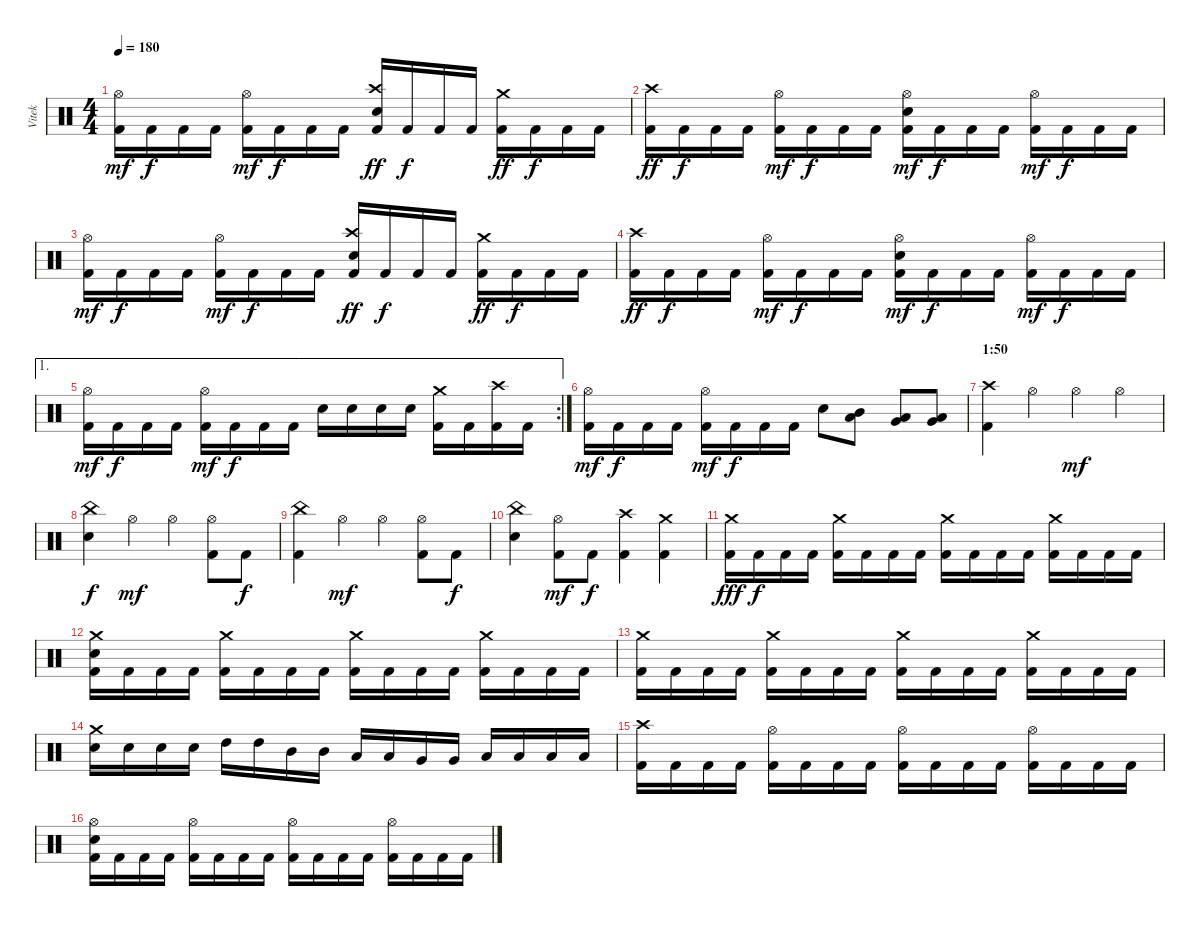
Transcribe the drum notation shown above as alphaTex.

\track ("Vitek" "Vitek") {instrument percussion}
\staff {score}
\articulation defaults
\ts (4 4)
\tempo 180
\clef neutral
\ks c
("Hi-Hat (open)" "Kick (hit) 2").16{dy mf} "Kick (hit) 2".16{dy f} "Kick (hit) 2".16 "Kick (hit) 2".16 ("Hi-Hat (open)" "Kick (hit) 2").16{dy mf} "Kick (hit) 2".16{dy f} "Kick (hit) 2".16 "Kick (hit) 2".16 ("Crash high (hit)" "Electric Snare (hit)" "Kick (hit) 2").16{dy ff} "Kick (hit) 2".16{dy f} "Kick (hit) 2".16 "Kick (hit) 2".16 ("Crash medium (hit)" "Kick (hit) 2").16{dy ff} "Kick (hit) 2".16{dy f} "Kick (hit) 2".16 "Kick (hit) 2".16 |
("Crash high (hit)" "Kick (hit) 2").16{dy ff} "Kick (hit) 2".16{dy f} "Kick (hit) 2".16 "Kick (hit) 2".16 ("Hi-Hat (open)" "Kick (hit) 2").16{dy mf} "Kick (hit) 2".16{dy f} "Kick (hit) 2".16 "Kick (hit) 2".16 ("Hi-Hat (open)" "Electric Snare (hit)" "Kick (hit) 2").16{dy mf} "Kick (hit) 2".16{dy f} "Kick (hit) 2".16 "Kick (hit) 2".16 ("Hi-Hat (open)" "Kick (hit) 2").16{dy mf} "Kick (hit) 2".16{dy f} "Kick (hit) 2".16 "Kick (hit) 2".16 |
("Hi-Hat (open)" "Kick (hit) 2").16{dy mf} "Kick (hit) 2".16{dy f} "Kick (hit) 2".16 "Kick (hit) 2".16 ("Hi-Hat (open)" "Kick (hit) 2").16{dy mf} "Kick (hit) 2".16{dy f} "Kick (hit) 2".16 "Kick (hit) 2".16 ("Crash high (hit)" "Electric Snare (hit)" "Kick (hit) 2").16{dy ff} "Kick (hit) 2".16{dy f} "Kick (hit) 2".16 "Kick (hit) 2".16 ("Crash medium (hit)" "Kick (hit) 2").16{dy ff} "Kick (hit) 2".16{dy f} "Kick (hit) 2".16 "Kick (hit) 2".16 |
("Crash high (hit)" "Kick (hit) 2").16{dy ff} "Kick (hit) 2".16{dy f} "Kick (hit) 2".16 "Kick (hit) 2".16 ("Hi-Hat (open)" "Kick (hit) 2").16{dy mf} "Kick (hit) 2".16{dy f} "Kick (hit) 2".16 "Kick (hit) 2".16 ("Hi-Hat (open)" "Electric Snare (hit)" "Kick (hit) 2").16{dy mf} "Kick (hit) 2".16{dy f} "Kick (hit) 2".16 "Kick (hit) 2".16 ("Hi-Hat (open)" "Kick (hit) 2").16{dy mf} "Kick (hit) 2".16{dy f} "Kick (hit) 2".16 "Kick (hit) 2".16 |
\ae 1
\rc 2
("Hi-Hat (open)" "Kick (hit) 2").16{dy mf} "Kick (hit) 2".16{dy f} "Kick (hit) 2".16 "Kick (hit) 2".16 ("Hi-Hat (open)" "Kick (hit) 2").16{dy mf} "Kick (hit) 2".16{dy f} "Kick (hit) 2".16 "Kick (hit) 2".16 "Electric Snare (hit)".16 "Electric Snare (hit)".16 "Electric Snare (hit)".16 "Electric Snare (hit)".16 ("Crash medium (hit)" "Kick (hit) 2").16 "Kick (hit) 2".16 ("Crash high (hit)" "Kick (hit) 2").16 "Kick (hit) 2".16 |
("Hi-Hat (open)" "Kick (hit) 2").16{dy mf} "Kick (hit) 2".16{dy f} "Kick (hit) 2".16 "Kick (hit) 2".16 ("Hi-Hat (open)" "Kick (hit) 2").16{dy mf} "Kick (hit) 2".16{dy f} "Kick (hit) 2".16 "Kick (hit) 2".16 "Electric Snare (hit)".8 ("Mid Tom (hit)" "Low Tom (hit)").8 ("Low Tom (hit)" "Very Low Tom (hit)").8 ("Very Low Tom (hit)" "Low Floor Tom (hit)").8 |
\section ("" "1:50")
("Crash high (hit)" "Kick (hit) 2").4 "Hi-Hat (open)".4 "Hi-Hat (open)".4{dy mf} "Hi-Hat (open)".4 |
("China (hit)" "Electric Snare (hit)").4{dy f} "Hi-Hat (open)".4{dy mf} "Hi-Hat (open)".4 ("Hi-Hat (open)" "Kick (hit) 2").8 "Kick (hit) 2".8{dy f} |
("China (hit)" "Kick (hit) 2").4 "Hi-Hat (open)".4{dy mf} "Hi-Hat (open)".4 ("Hi-Hat (open)" "Kick (hit) 2").8 "Kick (hit) 2".8{dy f} |
("China (hit)" "Electric Snare (hit)").4 ("Hi-Hat (open)" "Kick (hit) 2").8{dy mf} "Kick (hit) 2".8{dy f} ("Crash high (hit)" "Kick (hit) 2").4 ("Crash medium (hit)" "Kick (hit) 2").4 |
("Crash medium (hit)" "Kick (hit) 2").16{dy fff} "Kick (hit) 2".16{dy f} "Kick (hit) 2".16 "Kick (hit) 2".16 ("Crash medium (hit)" "Kick (hit) 2").16 "Kick (hit) 2".16 "Kick (hit) 2".16 "Kick (hit) 2".16 ("Crash medium (hit)" "Kick (hit) 2").16 "Kick (hit) 2".16 "Kick (hit) 2".16 "Kick (hit) 2".16 ("Crash medium (hit)" "Kick (hit) 2").16 "Kick (hit) 2".16 "Kick (hit) 2".16 "Kick (hit) 2".16 |
("Crash medium (hit)" "Electric Snare (hit)" "Kick (hit) 2").16 "Kick (hit) 2".16 "Kick (hit) 2".16 "Kick (hit) 2".16 ("Crash medium (hit)" "Kick (hit) 2").16 "Kick (hit) 2".16 "Kick (hit) 2".16 "Kick (hit) 2".16 ("Crash medium (hit)" "Kick (hit) 2").16 "Kick (hit) 2".16 "Kick (hit) 2".16 "Kick (hit) 2".16 ("Crash medium (hit)" "Kick (hit) 2").16 "Kick (hit) 2".16 "Kick (hit) 2".16 "Kick (hit) 2".16 |
("Crash medium (hit)" "Kick (hit) 2").16 "Kick (hit) 2".16 "Kick (hit) 2".16 "Kick (hit) 2".16 ("Crash medium (hit)" "Kick (hit) 2").16 "Kick (hit) 2".16 "Kick (hit) 2".16 "Kick (hit) 2".16 ("Crash medium (hit)" "Kick (hit) 2").16 "Kick (hit) 2".16 "Kick (hit) 2".16 "Kick (hit) 2".16 ("Crash medium (hit)" "Kick (hit) 2").16 "Kick (hit) 2".16 "Kick (hit) 2".16 "Kick (hit) 2".16 |
("Crash medium (hit)" "Electric Snare (hit)").16 "Electric Snare (hit)".16 "Electric Snare (hit)".16 "Electric Snare (hit)".16 "High Tom (hit)".16 "High Tom (hit)".16 "Mid Tom (hit)".16 "Mid Tom (hit)".16 "Low Tom (hit)".16 "Low Tom (hit)".16 "Very Low Tom (hit)".16 "Very Low Tom (hit)".16 "Low Floor Tom (hit)".16 "Low Floor Tom (hit)".16 "Low Floor Tom (hit)".16 "Low Floor Tom (hit)".16 |
("Crash high (hit)" "Kick (hit) 2").16 "Kick (hit) 2".16 "Kick (hit) 2".16 "Kick (hit) 2".16 ("Hi-Hat (open)" "Kick (hit) 2").16 "Kick (hit) 2".16 "Kick (hit) 2".16 "Kick (hit) 2".16 ("Hi-Hat (open)" "Kick (hit) 2").16 "Kick (hit) 2".16 "Kick (hit) 2".16 "Kick (hit) 2".16 ("Hi-Hat (open)" "Kick (hit) 2").16 "Kick (hit) 2".16 "Kick (hit) 2".16 "Kick (hit) 2".16 |
("Hi-Hat (open)" "Electric Snare (hit)" "Kick (hit) 2").16 "Kick (hit) 2".16 "Kick (hit) 2".16 "Kick (hit) 2".16 ("Hi-Hat (open)" "Kick (hit) 2").16 "Kick (hit) 2".16 "Kick (hit) 2".16 "Kick (hit) 2".16 ("Hi-Hat (open)" "Kick (hit) 2").16 "Kick (hit) 2".16 "Kick (hit) 2".16 "Kick (hit) 2".16 ("Hi-Hat (open)" "Kick (hit) 2").16 "Kick (hit) 2".16 "Kick (hit) 2".16 "Kick (hit) 2".16
